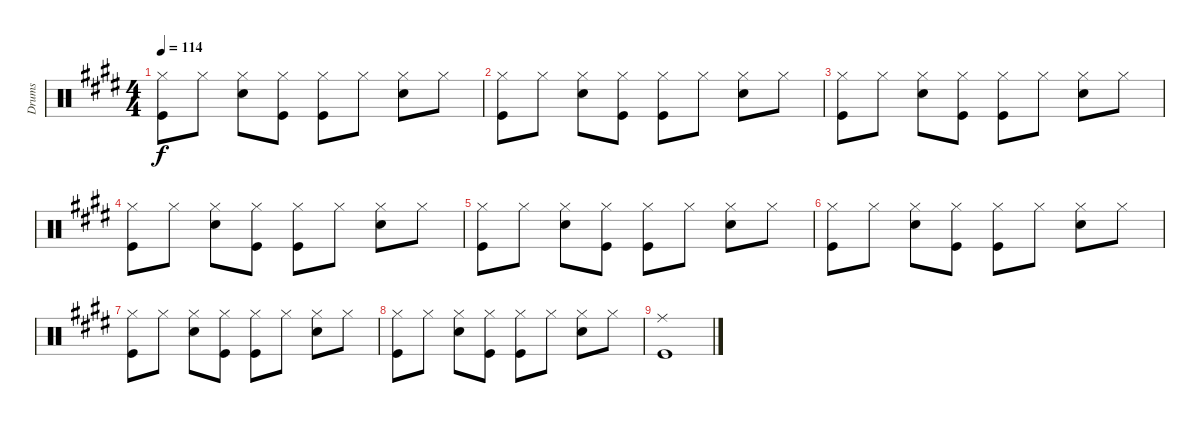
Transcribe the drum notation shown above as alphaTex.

\track ("Drums" "Drums") {instrument percussion}
\staff {score}
\articulation defaults
\ts (4 4)
\tempo 114
\clef neutral
\ks e
("Hi-Hat (closed)" "Kick (hit)").8{dy f} "Hi-Hat (closed)".8 ("Snare (hit) 2" "Hi-Hat (closed)").8 ("Hi-Hat (closed)" "Kick (hit)").8 ("Hi-Hat (closed)" "Kick (hit)").8 "Hi-Hat (closed)".8 ("Hi-Hat (closed)" "Snare (hit) 2").8 "Hi-Hat (closed)".8 |
("Hi-Hat (closed)" "Kick (hit)").8 "Hi-Hat (closed)".8 ("Snare (hit) 2" "Hi-Hat (closed)").8 ("Hi-Hat (closed)" "Kick (hit)").8 ("Hi-Hat (closed)" "Kick (hit)").8 "Hi-Hat (closed)".8 ("Hi-Hat (closed)" "Snare (hit) 2").8 "Hi-Hat (closed)".8 |
("Hi-Hat (closed)" "Kick (hit)").8 "Hi-Hat (closed)".8 ("Snare (hit) 2" "Hi-Hat (closed)").8 ("Hi-Hat (closed)" "Kick (hit)").8 ("Hi-Hat (closed)" "Kick (hit)").8 "Hi-Hat (closed)".8 ("Hi-Hat (closed)" "Snare (hit) 2").8 "Hi-Hat (closed)".8 |
("Hi-Hat (closed)" "Kick (hit)").8 "Hi-Hat (closed)".8 ("Snare (hit) 2" "Hi-Hat (closed)").8 ("Hi-Hat (closed)" "Kick (hit)").8 ("Hi-Hat (closed)" "Kick (hit)").8 "Hi-Hat (closed)".8 ("Hi-Hat (closed)" "Snare (hit) 2").8 "Hi-Hat (closed)".8 |
("Hi-Hat (closed)" "Kick (hit)").8 "Hi-Hat (closed)".8 ("Snare (hit) 2" "Hi-Hat (closed)").8 ("Hi-Hat (closed)" "Kick (hit)").8 ("Hi-Hat (closed)" "Kick (hit)").8 "Hi-Hat (closed)".8 ("Hi-Hat (closed)" "Snare (hit) 2").8 "Hi-Hat (closed)".8 |
("Hi-Hat (closed)" "Kick (hit)").8 "Hi-Hat (closed)".8 ("Snare (hit) 2" "Hi-Hat (closed)").8 ("Hi-Hat (closed)" "Kick (hit)").8 ("Hi-Hat (closed)" "Kick (hit)").8 "Hi-Hat (closed)".8 ("Hi-Hat (closed)" "Snare (hit) 2").8 "Hi-Hat (closed)".8 |
("Hi-Hat (closed)" "Kick (hit)").8 "Hi-Hat (closed)".8 ("Snare (hit) 2" "Hi-Hat (closed)").8 ("Hi-Hat (closed)" "Kick (hit)").8 ("Hi-Hat (closed)" "Kick (hit)").8 "Hi-Hat (closed)".8 ("Hi-Hat (closed)" "Snare (hit) 2").8 "Hi-Hat (closed)".8 |
("Hi-Hat (closed)" "Kick (hit)").8 "Hi-Hat (closed)".8 ("Snare (hit) 2" "Hi-Hat (closed)").8 ("Hi-Hat (closed)" "Kick (hit)").8 ("Hi-Hat (closed)" "Kick (hit)").8 "Hi-Hat (closed)".8 ("Hi-Hat (closed)" "Snare (hit) 2").8 "Hi-Hat (closed)".8 |
("Ride (middle)" "Kick (hit)").1
